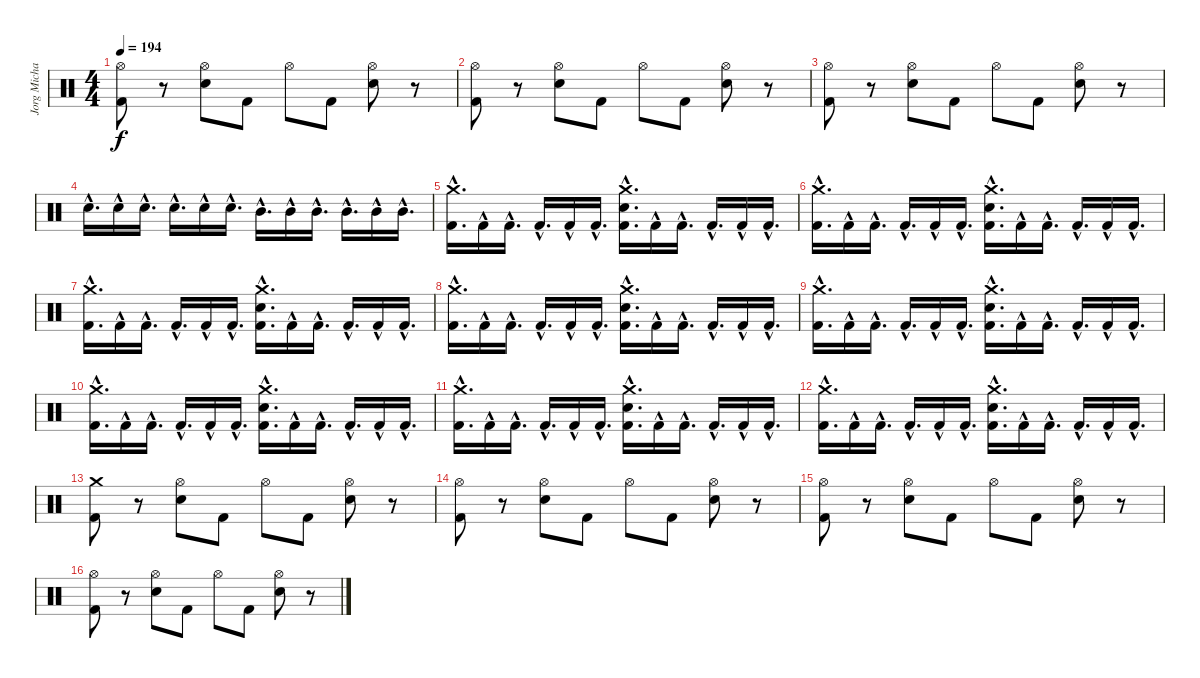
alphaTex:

\track ("Jorg Michael" "Jorg Micha") {instrument percussion}
\staff {score}
\articulation defaults
\ts (4 4)
\tempo 194
\clef neutral
\ks c
("Hi-Hat (open)" "Kick (hit) 2").8{dy f} r.8 ("Snare (hit) 2" "Hi-Hat (open)").8 "Kick (hit) 2".8 "Hi-Hat (open)".8 "Kick (hit) 2".8 ("Snare (hit) 2" "Hi-Hat (open)").8 r.8 |
("Hi-Hat (open)" "Kick (hit) 2").8 r.8 ("Snare (hit) 2" "Hi-Hat (open)").8 "Kick (hit) 2".8 "Hi-Hat (open)".8 "Kick (hit) 2".8 ("Snare (hit) 2" "Hi-Hat (open)").8 r.8 |
("Hi-Hat (open)" "Kick (hit) 2").8 r.8 ("Snare (hit) 2" "Hi-Hat (open)").8 "Kick (hit) 2".8 "Hi-Hat (open)".8 "Kick (hit) 2".8 ("Snare (hit) 2" "Hi-Hat (open)").8 r.8 |
"Snare (hit) 2"{hac}.16{d} "Snare (hit) 2"{hac}.16 "Snare (hit) 2"{hac}.16{d} "Snare (hit) 2"{hac}.16{d} "Snare (hit) 2"{hac}.16 "Snare (hit) 2"{hac}.16{d} "Mid Tom (hit)"{hac}.16{d} "Mid Tom (hit)"{hac}.16 "Mid Tom (hit)"{hac}.16{d} "Mid Tom (hit)"{hac}.16{d} "Mid Tom (hit)"{hac}.16 "Mid Tom (hit)"{hac}.16{d} |
("Crash medium (hit)" "Kick (hit) 2"{hac}).16{d} "Kick (hit) 2"{hac}.16 "Kick (hit) 2"{hac}.16{d} "Kick (hit) 2"{hac}.16{d} "Kick (hit) 2"{hac}.16 "Kick (hit) 2"{hac}.16{d} ("Snare (hit) 2" "Crash medium (hit)" "Kick (hit) 2"{hac}).16{d} "Kick (hit) 2"{hac}.16 "Kick (hit) 2"{hac}.16{d} "Kick (hit) 2"{hac}.16{d} "Kick (hit) 2"{hac}.16 "Kick (hit) 2"{hac}.16{d} |
("Crash medium (hit)" "Kick (hit) 2"{hac}).16{d} "Kick (hit) 2"{hac}.16 "Kick (hit) 2"{hac}.16{d} "Kick (hit) 2"{hac}.16{d} "Kick (hit) 2"{hac}.16 "Kick (hit) 2"{hac}.16{d} ("Snare (hit) 2" "Crash medium (hit)" "Kick (hit) 2"{hac}).16{d} "Kick (hit) 2"{hac}.16 "Kick (hit) 2"{hac}.16{d} "Kick (hit) 2"{hac}.16{d} "Kick (hit) 2"{hac}.16 "Kick (hit) 2"{hac}.16{d} |
("Crash medium (hit)" "Kick (hit) 2"{hac}).16{d} "Kick (hit) 2"{hac}.16 "Kick (hit) 2"{hac}.16{d} "Kick (hit) 2"{hac}.16{d} "Kick (hit) 2"{hac}.16 "Kick (hit) 2"{hac}.16{d} ("Snare (hit) 2" "Crash medium (hit)" "Kick (hit) 2"{hac}).16{d} "Kick (hit) 2"{hac}.16 "Kick (hit) 2"{hac}.16{d} "Kick (hit) 2"{hac}.16{d} "Kick (hit) 2"{hac}.16 "Kick (hit) 2"{hac}.16{d} |
("Crash medium (hit)" "Kick (hit) 2"{hac}).16{d} "Kick (hit) 2"{hac}.16 "Kick (hit) 2"{hac}.16{d} "Kick (hit) 2"{hac}.16{d} "Kick (hit) 2"{hac}.16 "Kick (hit) 2"{hac}.16{d} ("Snare (hit) 2" "Crash medium (hit)" "Kick (hit) 2"{hac}).16{d} "Kick (hit) 2"{hac}.16 "Kick (hit) 2"{hac}.16{d} "Kick (hit) 2"{hac}.16{d} "Kick (hit) 2"{hac}.16 "Kick (hit) 2"{hac}.16{d} |
("Crash medium (hit)" "Kick (hit) 2"{hac}).16{d} "Kick (hit) 2"{hac}.16 "Kick (hit) 2"{hac}.16{d} "Kick (hit) 2"{hac}.16{d} "Kick (hit) 2"{hac}.16 "Kick (hit) 2"{hac}.16{d} ("Snare (hit) 2" "Crash medium (hit)" "Kick (hit) 2"{hac}).16{d} "Kick (hit) 2"{hac}.16 "Kick (hit) 2"{hac}.16{d} "Kick (hit) 2"{hac}.16{d} "Kick (hit) 2"{hac}.16 "Kick (hit) 2"{hac}.16{d} |
("Crash medium (hit)" "Kick (hit) 2"{hac}).16{d} "Kick (hit) 2"{hac}.16 "Kick (hit) 2"{hac}.16{d} "Kick (hit) 2"{hac}.16{d} "Kick (hit) 2"{hac}.16 "Kick (hit) 2"{hac}.16{d} ("Snare (hit) 2" "Crash medium (hit)" "Kick (hit) 2"{hac}).16{d} "Kick (hit) 2"{hac}.16 "Kick (hit) 2"{hac}.16{d} "Kick (hit) 2"{hac}.16{d} "Kick (hit) 2"{hac}.16 "Kick (hit) 2"{hac}.16{d} |
("Crash medium (hit)" "Kick (hit) 2"{hac}).16{d} "Kick (hit) 2"{hac}.16 "Kick (hit) 2"{hac}.16{d} "Kick (hit) 2"{hac}.16{d} "Kick (hit) 2"{hac}.16 "Kick (hit) 2"{hac}.16{d} ("Snare (hit) 2" "Crash medium (hit)" "Kick (hit) 2"{hac}).16{d} "Kick (hit) 2"{hac}.16 "Kick (hit) 2"{hac}.16{d} "Kick (hit) 2"{hac}.16{d} "Kick (hit) 2"{hac}.16 "Kick (hit) 2"{hac}.16{d} |
("Crash medium (hit)" "Kick (hit) 2"{hac}).16{d} "Kick (hit) 2"{hac}.16 "Kick (hit) 2"{hac}.16{d} "Kick (hit) 2"{hac}.16{d} "Kick (hit) 2"{hac}.16 "Kick (hit) 2"{hac}.16{d} ("Snare (hit) 2" "Crash medium (hit)" "Kick (hit) 2"{hac}).16{d} "Kick (hit) 2"{hac}.16 "Kick (hit) 2"{hac}.16{d} "Kick (hit) 2"{hac}.16{d} "Kick (hit) 2"{hac}.16 "Kick (hit) 2"{hac}.16{d} |
("Crash medium (hit)" "Kick (hit) 2").8 r.8 ("Snare (hit) 2" "Hi-Hat (open)").8 "Kick (hit) 2".8 "Hi-Hat (open)".8 "Kick (hit) 2".8 ("Snare (hit) 2" "Hi-Hat (open)").8 r.8 |
("Hi-Hat (open)" "Kick (hit) 2").8 r.8 ("Snare (hit) 2" "Hi-Hat (open)").8 "Kick (hit) 2".8 "Hi-Hat (open)".8 "Kick (hit) 2".8 ("Snare (hit) 2" "Hi-Hat (open)").8 r.8 |
("Hi-Hat (open)" "Kick (hit) 2").8 r.8 ("Snare (hit) 2" "Hi-Hat (open)").8 "Kick (hit) 2".8 "Hi-Hat (open)".8 "Kick (hit) 2".8 ("Snare (hit) 2" "Hi-Hat (open)").8 r.8 |
("Hi-Hat (open)" "Kick (hit) 2").8 r.8 ("Snare (hit) 2" "Hi-Hat (open)").8 "Kick (hit) 2".8 "Hi-Hat (open)".8 "Kick (hit) 2".8 ("Snare (hit) 2" "Hi-Hat (open)").8 r.8
